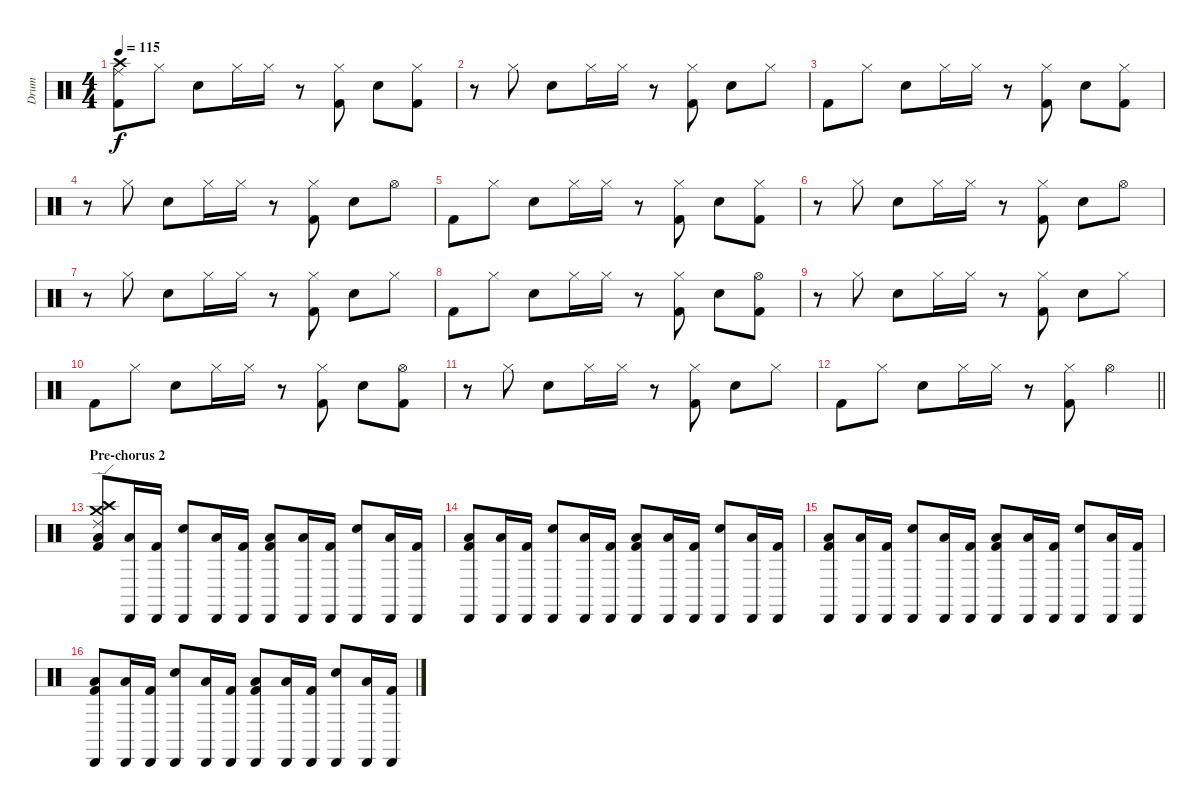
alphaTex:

\track ("Drum" "Drum") {instrument percussion}
\staff {score}
\articulation defaults
\ts (4 4)
\tempo 115
\clef neutral
\ks c
("Ride (middle)" "Crash high (hit)" "Kick (hit) 2").8{dy f} "Hi-Hat (closed)".8 "Electric Snare (hit)".8 "Hi-Hat (closed)".16 "Hi-Hat (closed)".16 r.8 ("Hi-Hat (closed)" "Kick (hit) 2").8 "Electric Snare (hit)".8 ("Hi-Hat (closed)" "Kick (hit) 2").8 |
r.8 "Hi-Hat (closed)".8 "Electric Snare (hit)".8 "Hi-Hat (closed)".16 "Hi-Hat (closed)".16 r.8 ("Hi-Hat (closed)" "Kick (hit) 2").8 "Electric Snare (hit)".8 "Hi-Hat (closed)".8 |
"Kick (hit) 2".8 "Hi-Hat (closed)".8 "Electric Snare (hit)".8 "Hi-Hat (closed)".16 "Hi-Hat (closed)".16 r.8 ("Hi-Hat (closed)" "Kick (hit) 2").8 "Electric Snare (hit)".8 ("Hi-Hat (closed)" "Kick (hit) 2").8 |
r.8 "Hi-Hat (closed)".8 "Electric Snare (hit)".8 "Hi-Hat (closed)".16 "Hi-Hat (closed)".16 r.8 ("Hi-Hat (closed)" "Kick (hit) 2").8 "Electric Snare (hit)".8 "Hi-Hat (open)".8 |
"Kick (hit) 2".8 "Hi-Hat (closed)".8 "Electric Snare (hit)".8 "Hi-Hat (closed)".16 "Hi-Hat (closed)".16 r.8 ("Hi-Hat (closed)" "Kick (hit) 2").8 "Electric Snare (hit)".8 ("Hi-Hat (closed)" "Kick (hit) 2").8 |
r.8 "Hi-Hat (closed)".8 "Electric Snare (hit)".8 "Hi-Hat (closed)".16 "Hi-Hat (closed)".16 r.8 ("Hi-Hat (closed)" "Kick (hit) 2").8 "Electric Snare (hit)".8 "Hi-Hat (open)".8 |
r.8 "Hi-Hat (closed)".8 "Electric Snare (hit)".8 "Hi-Hat (closed)".16 "Hi-Hat (closed)".16 r.8 ("Hi-Hat (closed)" "Kick (hit) 2").8 "Electric Snare (hit)".8 "Hi-Hat (closed)".8 |
"Kick (hit) 2".8 "Hi-Hat (closed)".8 "Electric Snare (hit)".8 "Hi-Hat (closed)".16 "Hi-Hat (closed)".16 r.8 ("Hi-Hat (closed)" "Kick (hit) 2").8 "Electric Snare (hit)".8 ("Hi-Hat (open)" "Kick (hit) 2").8 |
r.8 "Hi-Hat (closed)".8 "Electric Snare (hit)".8 "Hi-Hat (closed)".16 "Hi-Hat (closed)".16 r.8 ("Hi-Hat (closed)" "Kick (hit) 2").8 "Electric Snare (hit)".8 "Hi-Hat (closed)".8 |
"Kick (hit) 2".8 "Hi-Hat (closed)".8 "Electric Snare (hit)".8 "Hi-Hat (closed)".16 "Hi-Hat (closed)".16 r.8 ("Hi-Hat (closed)" "Kick (hit) 2").8 "Electric Snare (hit)".8 ("Hi-Hat (open)" "Kick (hit) 2").8 |
r.8 "Hi-Hat (closed)".8 "Electric Snare (hit)".8 "Hi-Hat (closed)".16 "Hi-Hat (closed)".16 r.8 ("Hi-Hat (closed)" "Kick (hit) 2").8 "Electric Snare (hit)".8 "Hi-Hat (closed)".8 |
\barLineRight lightlight "Kick (hit) 2".8 "Hi-Hat (closed)".8 "Electric Snare (hit)".8 "Hi-Hat (closed)".16 "Hi-Hat (closed)".16
r.8 ("Hi-Hat (closed)" "Kick (hit) 2").8 "Hi-Hat (open)".4 |
\section ("" "Pre-chorus 2")
("Crash medium (hit)" "Crash high (hit)" "Ride (edge) 2" "Low Tom (hit)" "Kick (hit) 2").8 ("Cabasa (hit)" "Low Tom (hit)").16 ("Cabasa (hit)" "Kick (hit) 2").16 ("Cabasa (hit)" "Electric Snare (hit)").8 ("Cabasa (hit)" "Low Tom (hit)").16 ("Cabasa (hit)" "Kick (hit) 2").16 ("Cabasa (hit)" "Low Tom (hit)" "Kick (hit) 2").8 ("Cabasa (hit)" "Low Tom (hit)").16 ("Cabasa (hit)" "Kick (hit) 2").16 ("Cabasa (hit)" "Electric Snare (hit)").8 ("Cabasa (hit)" "Low Tom (hit)").16 ("Cabasa (hit)" "Kick (hit) 2").16 |
("Cabasa (hit)" "Low Tom (hit)" "Kick (hit) 2").8 ("Cabasa (hit)" "Low Tom (hit)").16 ("Cabasa (hit)" "Kick (hit) 2").16 ("Cabasa (hit)" "Electric Snare (hit)").8 ("Cabasa (hit)" "Low Tom (hit)").16 ("Cabasa (hit)" "Kick (hit) 2").16 ("Cabasa (hit)" "Low Tom (hit)" "Kick (hit) 2").8 ("Cabasa (hit)" "Low Tom (hit)").16 ("Cabasa (hit)" "Kick (hit) 2").16 ("Cabasa (hit)" "Electric Snare (hit)").8 ("Cabasa (hit)" "Low Tom (hit)").16 ("Cabasa (hit)" "Kick (hit) 2").16 |
("Cabasa (hit)" "Low Tom (hit)" "Kick (hit) 2").8 ("Cabasa (hit)" "Low Tom (hit)").16 ("Cabasa (hit)" "Kick (hit) 2").16 ("Cabasa (hit)" "Electric Snare (hit)").8 ("Cabasa (hit)" "Low Tom (hit)").16 ("Cabasa (hit)" "Kick (hit) 2").16 ("Cabasa (hit)" "Low Tom (hit)" "Kick (hit) 2").8 ("Cabasa (hit)" "Low Tom (hit)").16 ("Cabasa (hit)" "Kick (hit) 2").16 ("Cabasa (hit)" "Electric Snare (hit)").8 ("Cabasa (hit)" "Low Tom (hit)").16 ("Cabasa (hit)" "Kick (hit) 2").16 |
("Cabasa (hit)" "Low Tom (hit)" "Kick (hit) 2").8 ("Cabasa (hit)" "Low Tom (hit)").16 ("Cabasa (hit)" "Kick (hit) 2").16 ("Cabasa (hit)" "Electric Snare (hit)").8 ("Cabasa (hit)" "Low Tom (hit)").16 ("Cabasa (hit)" "Kick (hit) 2").16 ("Cabasa (hit)" "Low Tom (hit)" "Kick (hit) 2").8 ("Cabasa (hit)" "Low Tom (hit)").16 ("Cabasa (hit)" "Kick (hit) 2").16 ("Cabasa (hit)" "Electric Snare (hit)").8 ("Cabasa (hit)" "Low Tom (hit)").16 ("Cabasa (hit)" "Kick (hit) 2").16
